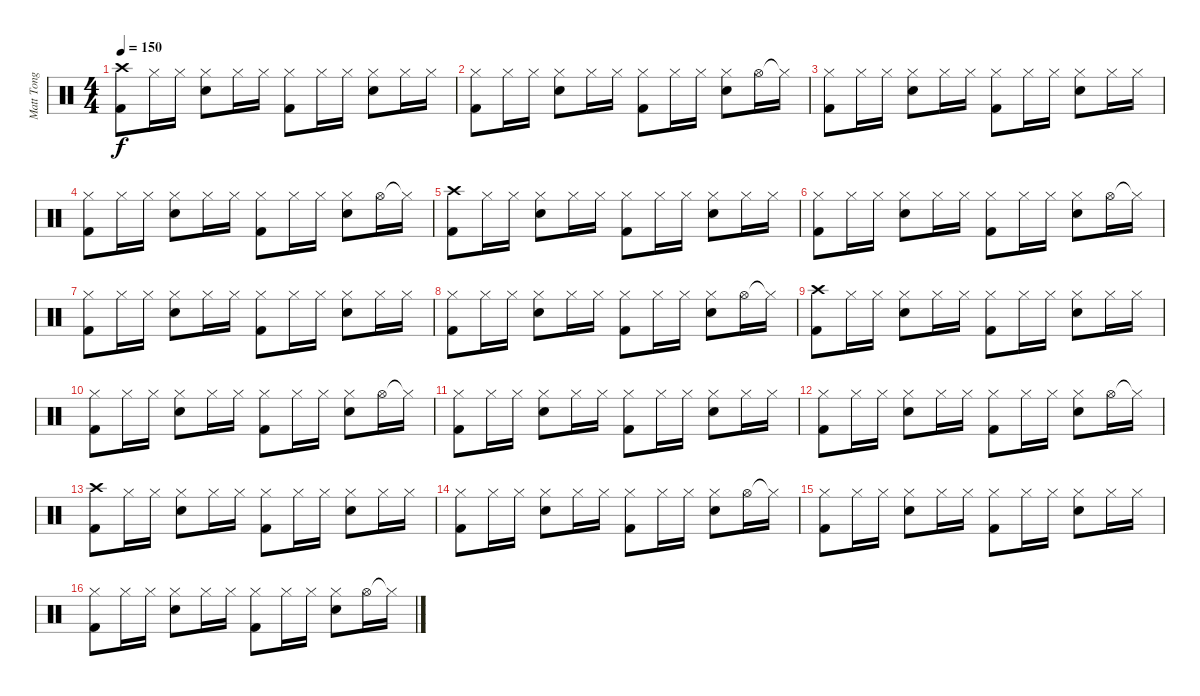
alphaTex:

\track ("Matt Tong" "Matt Tong") {instrument percussion}
\staff {score}
\articulation defaults
\ts (4 4)
\tempo 150
\clef neutral
\ks c
("Crash high (hit)" "Kick (hit) 2").8{dy f} "Hi-Hat (closed)".16 "Hi-Hat (closed)".16 ("Hi-Hat (closed)" "Electric Snare (hit)").8 "Hi-Hat (closed)".16 "Hi-Hat (closed)".16 ("Hi-Hat (closed)" "Kick (hit) 2").8 "Hi-Hat (closed)".16 "Hi-Hat (closed)".16 ("Hi-Hat (closed)" "Electric Snare (hit)").8 "Hi-Hat (closed)".16 "Hi-Hat (closed)".16 |
("Hi-Hat (closed)" "Kick (hit) 2").8 "Hi-Hat (closed)".16 "Hi-Hat (closed)".16 ("Hi-Hat (closed)" "Electric Snare (hit)").8 "Hi-Hat (closed)".16 "Hi-Hat (closed)".16 ("Hi-Hat (closed)" "Kick (hit) 2").8 "Hi-Hat (closed)".16 "Hi-Hat (closed)".16 ("Hi-Hat (closed)" "Electric Snare (hit)").8 "Hi-Hat (open)".16 "Hi-Hat (closed)"{t}.16 |
("Hi-Hat (closed)" "Kick (hit) 2").8 "Hi-Hat (closed)".16 "Hi-Hat (closed)".16 ("Hi-Hat (closed)" "Electric Snare (hit)").8 "Hi-Hat (closed)".16 "Hi-Hat (closed)".16 ("Hi-Hat (closed)" "Kick (hit) 2").8 "Hi-Hat (closed)".16 "Hi-Hat (closed)".16 ("Hi-Hat (closed)" "Electric Snare (hit)").8 "Hi-Hat (closed)".16 "Hi-Hat (closed)".16 |
("Hi-Hat (closed)" "Kick (hit) 2").8 "Hi-Hat (closed)".16 "Hi-Hat (closed)".16 ("Hi-Hat (closed)" "Electric Snare (hit)").8 "Hi-Hat (closed)".16 "Hi-Hat (closed)".16 ("Hi-Hat (closed)" "Kick (hit) 2").8 "Hi-Hat (closed)".16 "Hi-Hat (closed)".16 ("Hi-Hat (closed)" "Electric Snare (hit)").8 "Hi-Hat (open)".16 "Hi-Hat (closed)"{t}.16 |
("Crash high (hit)" "Kick (hit) 2").8 "Hi-Hat (closed)".16 "Hi-Hat (closed)".16 ("Hi-Hat (closed)" "Electric Snare (hit)").8 "Hi-Hat (closed)".16 "Hi-Hat (closed)".16 ("Hi-Hat (closed)" "Kick (hit) 2").8 "Hi-Hat (closed)".16 "Hi-Hat (closed)".16 ("Hi-Hat (closed)" "Electric Snare (hit)").8 "Hi-Hat (closed)".16 "Hi-Hat (closed)".16 |
("Hi-Hat (closed)" "Kick (hit) 2").8 "Hi-Hat (closed)".16 "Hi-Hat (closed)".16 ("Hi-Hat (closed)" "Electric Snare (hit)").8 "Hi-Hat (closed)".16 "Hi-Hat (closed)".16 ("Hi-Hat (closed)" "Kick (hit) 2").8 "Hi-Hat (closed)".16 "Hi-Hat (closed)".16 ("Hi-Hat (closed)" "Electric Snare (hit)").8 "Hi-Hat (open)".16 "Hi-Hat (closed)"{t}.16 |
("Hi-Hat (closed)" "Kick (hit) 2").8 "Hi-Hat (closed)".16 "Hi-Hat (closed)".16 ("Hi-Hat (closed)" "Electric Snare (hit)").8 "Hi-Hat (closed)".16 "Hi-Hat (closed)".16 ("Hi-Hat (closed)" "Kick (hit) 2").8 "Hi-Hat (closed)".16 "Hi-Hat (closed)".16 ("Hi-Hat (closed)" "Electric Snare (hit)").8 "Hi-Hat (closed)".16 "Hi-Hat (closed)".16 |
("Hi-Hat (closed)" "Kick (hit) 2").8 "Hi-Hat (closed)".16 "Hi-Hat (closed)".16 ("Hi-Hat (closed)" "Electric Snare (hit)").8 "Hi-Hat (closed)".16 "Hi-Hat (closed)".16 ("Hi-Hat (closed)" "Kick (hit) 2").8 "Hi-Hat (closed)".16 "Hi-Hat (closed)".16 ("Hi-Hat (closed)" "Electric Snare (hit)").8 "Hi-Hat (open)".16 "Hi-Hat (closed)"{t}.16 |
("Crash high (hit)" "Kick (hit) 2").8 "Hi-Hat (closed)".16 "Hi-Hat (closed)".16 ("Hi-Hat (closed)" "Electric Snare (hit)").8 "Hi-Hat (closed)".16 "Hi-Hat (closed)".16 ("Hi-Hat (closed)" "Kick (hit) 2").8 "Hi-Hat (closed)".16 "Hi-Hat (closed)".16 ("Hi-Hat (closed)" "Electric Snare (hit)").8 "Hi-Hat (closed)".16 "Hi-Hat (closed)".16 |
("Hi-Hat (closed)" "Kick (hit) 2").8 "Hi-Hat (closed)".16 "Hi-Hat (closed)".16 ("Hi-Hat (closed)" "Electric Snare (hit)").8 "Hi-Hat (closed)".16 "Hi-Hat (closed)".16 ("Hi-Hat (closed)" "Kick (hit) 2").8 "Hi-Hat (closed)".16 "Hi-Hat (closed)".16 ("Hi-Hat (closed)" "Electric Snare (hit)").8 "Hi-Hat (open)".16 "Hi-Hat (closed)"{t}.16 |
("Hi-Hat (closed)" "Kick (hit) 2").8 "Hi-Hat (closed)".16 "Hi-Hat (closed)".16 ("Hi-Hat (closed)" "Electric Snare (hit)").8 "Hi-Hat (closed)".16 "Hi-Hat (closed)".16 ("Hi-Hat (closed)" "Kick (hit) 2").8 "Hi-Hat (closed)".16 "Hi-Hat (closed)".16 ("Hi-Hat (closed)" "Electric Snare (hit)").8 "Hi-Hat (closed)".16 "Hi-Hat (closed)".16 |
("Hi-Hat (closed)" "Kick (hit) 2").8 "Hi-Hat (closed)".16 "Hi-Hat (closed)".16 ("Hi-Hat (closed)" "Electric Snare (hit)").8 "Hi-Hat (closed)".16 "Hi-Hat (closed)".16 ("Hi-Hat (closed)" "Kick (hit) 2").8 "Hi-Hat (closed)".16 "Hi-Hat (closed)".16 ("Hi-Hat (closed)" "Electric Snare (hit)").8 "Hi-Hat (open)".16 "Hi-Hat (closed)"{t}.16 |
("Crash high (hit)" "Kick (hit) 2").8 "Hi-Hat (closed)".16 "Hi-Hat (closed)".16 ("Hi-Hat (closed)" "Electric Snare (hit)").8 "Hi-Hat (closed)".16 "Hi-Hat (closed)".16 ("Hi-Hat (closed)" "Kick (hit) 2").8 "Hi-Hat (closed)".16 "Hi-Hat (closed)".16 ("Hi-Hat (closed)" "Electric Snare (hit)").8 "Hi-Hat (closed)".16 "Hi-Hat (closed)".16 |
("Hi-Hat (closed)" "Kick (hit) 2").8 "Hi-Hat (closed)".16 "Hi-Hat (closed)".16 ("Hi-Hat (closed)" "Electric Snare (hit)").8 "Hi-Hat (closed)".16 "Hi-Hat (closed)".16 ("Hi-Hat (closed)" "Kick (hit) 2").8 "Hi-Hat (closed)".16 "Hi-Hat (closed)".16 ("Hi-Hat (closed)" "Electric Snare (hit)").8 "Hi-Hat (open)".16 "Hi-Hat (closed)"{t}.16 |
("Hi-Hat (closed)" "Kick (hit) 2").8 "Hi-Hat (closed)".16 "Hi-Hat (closed)".16 ("Hi-Hat (closed)" "Electric Snare (hit)").8 "Hi-Hat (closed)".16 "Hi-Hat (closed)".16 ("Hi-Hat (closed)" "Kick (hit) 2").8 "Hi-Hat (closed)".16 "Hi-Hat (closed)".16 ("Hi-Hat (closed)" "Electric Snare (hit)").8 "Hi-Hat (closed)".16 "Hi-Hat (closed)".16 |
("Hi-Hat (closed)" "Kick (hit) 2").8 "Hi-Hat (closed)".16 "Hi-Hat (closed)".16 ("Hi-Hat (closed)" "Electric Snare (hit)").8 "Hi-Hat (closed)".16 "Hi-Hat (closed)".16 ("Hi-Hat (closed)" "Kick (hit) 2").8 "Hi-Hat (closed)".16 "Hi-Hat (closed)".16 ("Hi-Hat (closed)" "Electric Snare (hit)").8 "Hi-Hat (open)".16 "Hi-Hat (closed)"{t}.16
